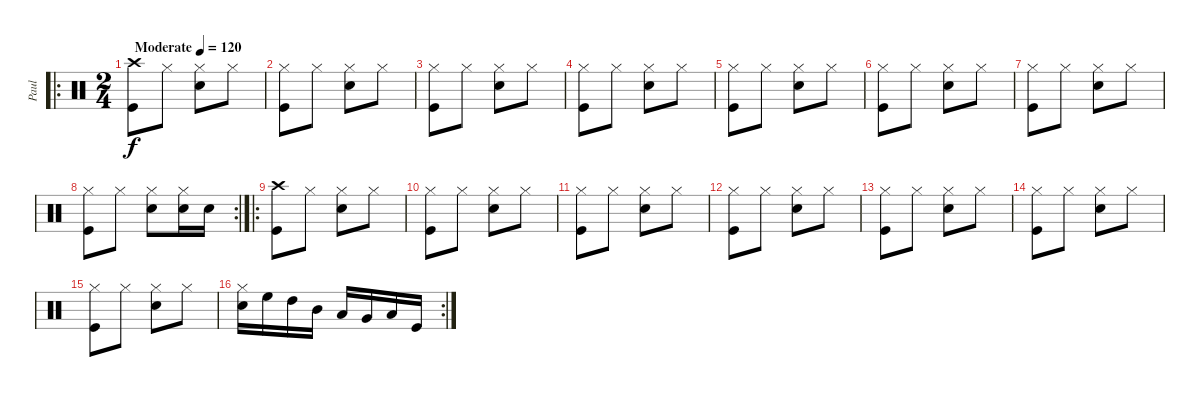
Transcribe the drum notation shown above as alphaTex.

\track ("Paul" "Paul") {instrument percussion}
\staff {score}
\articulation defaults
\ro
\ts (2 4)
\tempo (120 "Moderate")
\clef neutral
\ks c
("Crash high (hit)" "Kick (hit)").8{dy f} "Hi-Hat (closed)".8 ("Hi-Hat (closed)" "Snare (hit) 2").8 "Hi-Hat (closed)".8 |
("Hi-Hat (closed)" "Kick (hit)").8 "Hi-Hat (closed)".8 ("Hi-Hat (closed)" "Snare (hit) 2").8 "Hi-Hat (closed)".8 |
("Hi-Hat (closed)" "Kick (hit)").8 "Hi-Hat (closed)".8 ("Hi-Hat (closed)" "Snare (hit) 2").8 "Hi-Hat (closed)".8 |
("Hi-Hat (closed)" "Kick (hit)").8 "Hi-Hat (closed)".8 ("Hi-Hat (closed)" "Snare (hit) 2").8 "Hi-Hat (closed)".8 |
("Hi-Hat (closed)" "Kick (hit)").8 "Hi-Hat (closed)".8 ("Hi-Hat (closed)" "Snare (hit) 2").8 "Hi-Hat (closed)".8 |
("Hi-Hat (closed)" "Kick (hit)").8 "Hi-Hat (closed)".8 ("Hi-Hat (closed)" "Snare (hit) 2").8 "Hi-Hat (closed)".8 |
("Hi-Hat (closed)" "Kick (hit)").8 "Hi-Hat (closed)".8 ("Hi-Hat (closed)" "Snare (hit) 2").8 "Hi-Hat (closed)".8 |
\rc 2
("Hi-Hat (closed)" "Kick (hit)").8 "Hi-Hat (closed)".8 ("Hi-Hat (closed)" "Snare (hit) 2").8 ("Hi-Hat (closed)" "Snare (hit) 2").16 "Snare (hit) 2".16 |
\ro
("Crash high (hit)" "Kick (hit)").8 "Hi-Hat (closed)".8 ("Hi-Hat (closed)" "Snare (hit) 2").8 "Hi-Hat (closed)".8 |
("Hi-Hat (closed)" "Kick (hit)").8 "Hi-Hat (closed)".8 ("Hi-Hat (closed)" "Snare (hit) 2").8 "Hi-Hat (closed)".8 |
("Hi-Hat (closed)" "Kick (hit)").8 "Hi-Hat (closed)".8 ("Hi-Hat (closed)" "Snare (hit) 2").8 "Hi-Hat (closed)".8 |
("Hi-Hat (closed)" "Kick (hit)").8 "Hi-Hat (closed)".8 ("Hi-Hat (closed)" "Snare (hit) 2").8 "Hi-Hat (closed)".8 |
("Hi-Hat (closed)" "Kick (hit)").8 "Hi-Hat (closed)".8 ("Hi-Hat (closed)" "Snare (hit) 2").8 "Hi-Hat (closed)".8 |
("Hi-Hat (closed)" "Kick (hit)").8 "Hi-Hat (closed)".8 ("Hi-Hat (closed)" "Snare (hit) 2").8 "Hi-Hat (closed)".8 |
("Hi-Hat (closed)" "Kick (hit)").8 "Hi-Hat (closed)".8 ("Hi-Hat (closed)" "Snare (hit) 2").8 "Hi-Hat (closed)".8 |
\rc 2
("Hi-Hat (closed)" "Snare (hit) 2").16 "High Floor Tom (hit)".16 "High Tom (hit)".16 "Mid Tom (hit)".16 "Low Tom (hit)".16 "Very Low Tom (hit)".16 "Low Floor Tom (hit)".16 "Kick (hit)".16
